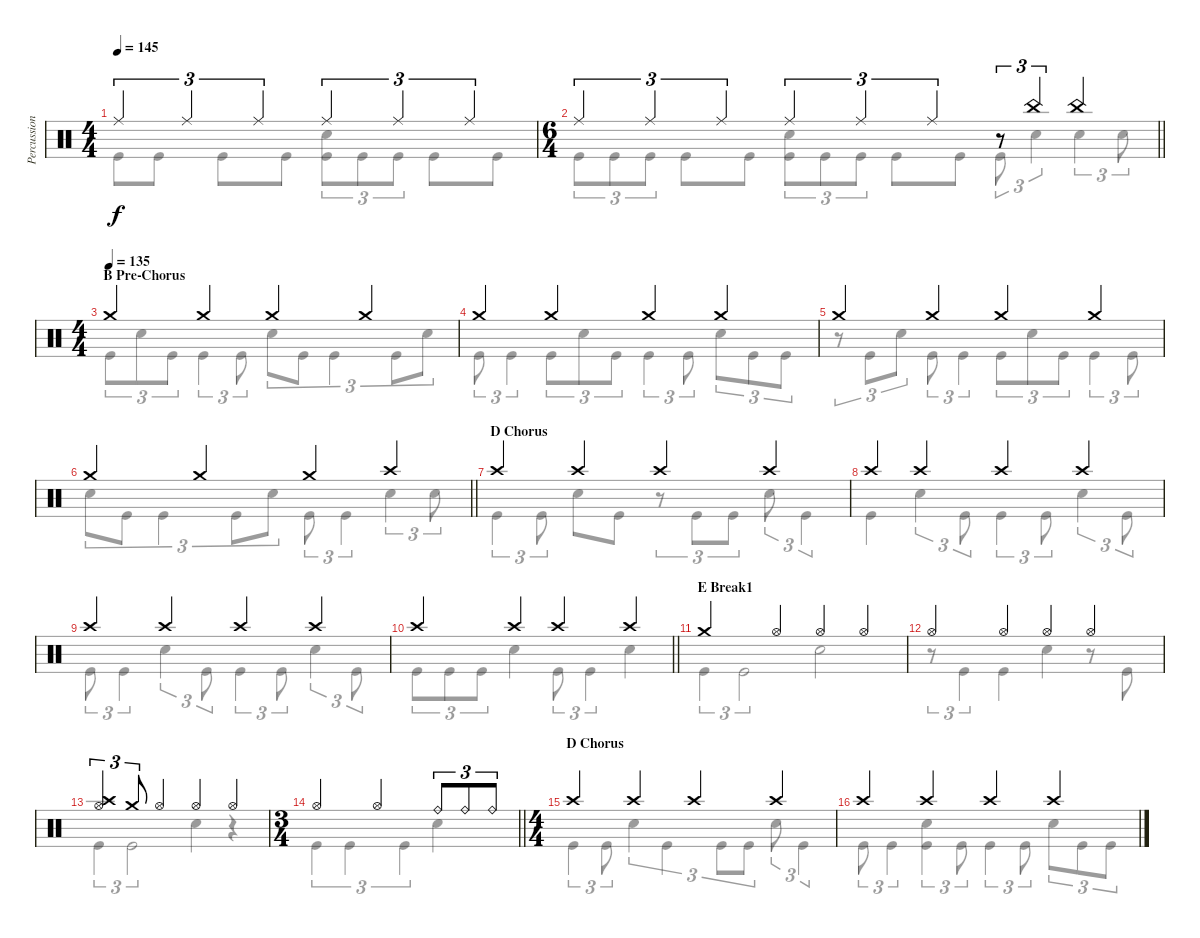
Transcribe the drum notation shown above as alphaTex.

\track ("Percussions" "Percussion") {instrument percussion}
\staff {score}
\articulation defaults
\voice
\ts (4 4)
\tempo 145
\clef neutral
\ks c "Ride (middle)".4{tu (3 2) dy f} "Ride (middle)".4{tu (3 2)} "Ride (middle)".4{tu (3 2)} "Ride (middle)".4{tu (3 2)} "Ride (middle)".4{tu (3 2)} "Ride (middle)".4{tu (3 2)}
|
\ts (6 4)
\barLineRight lightlight "Ride (middle)".4{tu (3 2)} "Ride (middle)".4{tu (3 2)} "Ride (middle)".4{tu (3 2)} "Ride (middle)".4{tu (3 2)} "Ride (middle)".4{tu (3 2)} "Ride (middle)".4{tu (3 2)}
r.8{tu (3 2)} "China (hit)".4{tu (3 2)} "China (hit)".4 |
\ts (4 4)
\section ("" "B Pre-Chorus")
\tempo (135)
"Crash medium (hit)".4 "Crash medium (hit)".4 "Crash medium (hit)".4 "Crash medium (hit)".4 |
"Crash medium (hit)".4 "Crash medium (hit)".4 "Crash medium (hit)".4 "Crash medium (hit)".4 |
"Crash medium (hit)".4 "Crash medium (hit)".4 "Crash medium (hit)".4 "Crash medium (hit)".4 |
\barLineRight lightlight "Crash medium (hit)".4 "Crash medium (hit)".4 "Crash medium (hit)".4 "Crash high (hit)".4
|
\section ("" "D Chorus")
"Crash high (hit)".4 "Crash high (hit)".4 "Crash high (hit)".4 "Crash high (hit)".4 |
"Crash high (hit)".4 "Crash high (hit)".4 "Crash high (hit)".4 "Crash high (hit)".4 |
"Crash high (hit)".4 "Crash high (hit)".4 "Crash high (hit)".4 "Crash high (hit)".4 |
\barLineRight lightlight "Crash high (hit)".4 "Crash high (hit)".4 "Crash high (hit)".4 "Crash high (hit)".4
|
\section ("" "E Break1")
"Crash medium (hit)".4 "Hi-Hat (open)".4 "Hi-Hat (open)".4 "Hi-Hat (open)".4 |
"Hi-Hat (open)".4 "Hi-Hat (open)".4 "Hi-Hat (open)".4 "Hi-Hat (open)".4 |
("Crash high (hit)" "Hi-Hat (open)").4{tu (3 2)} "Crash medium (hit)".8{tu (3 2)} "Hi-Hat (open)".4 "Hi-Hat (open)".4 "Hi-Hat (open)".4 |
\ts (3 4)
\barLineRight lightlight "Hi-Hat (open)".4 "Hi-Hat (open)".4 "Ride (bell)".8{tu (3 2)} "Ride (bell)".8{tu (3 2)} "Ride (bell)".8{tu (3 2)}
|
\ts (4 4)
\section ("" "D Chorus")
"Crash high (hit)".4 "Crash high (hit)".4 "Crash high (hit)".4 "Crash high (hit)".4 |
"Crash high (hit)".4 "Crash high (hit)".4 "Crash high (hit)".4 "Crash high (hit)".4
\voice
\clef neutral
\ottava regular
\simile none
\ks c "Kick (hit)".8{dy f} "Kick (hit)".8 "Kick (hit)".8 "Kick (hit)".8
("Snare (hit) 2" "Kick (hit)").8{tu (3 2)} "Kick (hit)".8{tu (3 2)} "Kick (hit)".8{tu (3 2)} "Kick (hit)".8 "Kick (hit)".8 |
\barLineRight lightlight "Kick (hit)".8{tu (3 2)} "Kick (hit)".8{tu (3 2)} "Kick (hit)".8{tu (3 2) beam split} "Kick (hit)".8 "Kick (hit)".8{beam split}
("Snare (hit) 2" "Kick (hit)").8{tu (3 2)} "Kick (hit)".8{tu (3 2)} "Kick (hit)".8{tu (3 2)} "Kick (hit)".8 "Kick (hit)".8 "Kick (hit)".8{tu (3 2)} "Snare (hit) 2".4{tu (3 2)} "Snare (hit) 2".4{tu (3 2)} "Snare (hit) 2".8{tu (3 2)} |
"Kick (hit)".8{tu (3 2)} "Snare (hit) 2".8{tu (3 2)} "Kick (hit)".8{tu (3 2)} "Kick (hit)".4{tu (3 2)} "Kick (hit)".8{tu (3 2)} "Snare (hit) 2".8{tu (3 2)} "Kick (hit)".8{tu (3 2)} "Kick (hit)".4{tu (3 2)} "Kick (hit)".8{tu (3 2)} "Snare (hit) 2".8{tu (3 2)} |
"Kick (hit)".8{tu (3 2)} "Kick (hit)".4{tu (3 2)} "Kick (hit)".8{tu (3 2)} "Snare (hit) 2".8{tu (3 2)} "Kick (hit)".8{tu (3 2)} "Kick (hit)".4{tu (3 2)} "Kick (hit)".8{tu (3 2)} "Snare (hit) 2".8{tu (3 2)} "Kick (hit)".8{tu (3 2)} "Kick (hit)".8{tu (3 2)} |
r.8{tu (3 2)} "Kick (hit)".8{tu (3 2)} "Snare (hit) 2".8{tu (3 2)} "Kick (hit)".8{tu (3 2)} "Kick (hit)".4{tu (3 2)} "Kick (hit)".8{tu (3 2)} "Snare (hit) 2".8{tu (3 2)} "Kick (hit)".8{tu (3 2)} "Kick (hit)".4{tu (3 2)} "Kick (hit)".8{tu (3 2)} |
\barLineRight lightlight "Snare (hit) 2".8{tu (3 2)} "Kick (hit)".8{tu (3 2)} "Kick (hit)".4{tu (3 2)} "Kick (hit)".8{tu (3 2)} "Snare (hit) 2".8{tu (3 2)} "Kick (hit)".8{tu (3 2)} "Kick (hit)".4{tu (3 2)} "Snare (hit) 2".4{tu (3 2)} "Snare (hit) 2".8{tu (3 2)}
|
"Kick (hit)".4{tu (3 2)} "Kick (hit)".8{tu (3 2)} "Snare (hit) 2".8 "Kick (hit)".8 r.8{tu (3 2)} "Kick (hit)".8{tu (3 2)} "Kick (hit)".8{tu (3 2)} "Snare (hit) 2".8{tu (3 2)} "Kick (hit)".4{tu (3 2)} |
"Kick (hit)".4 "Snare (hit) 2".4{tu (3 2)} "Kick (hit)".8{tu (3 2)} "Kick (hit)".4{tu (3 2)} "Kick (hit)".8{tu (3 2)} "Snare (hit) 2".4{tu (3 2)} "Kick (hit)".8{tu (3 2)} |
"Kick (hit)".8{tu (3 2)} "Kick (hit)".4{tu (3 2)} "Snare (hit) 2".4{tu (3 2)} "Kick (hit)".8{tu (3 2)} "Kick (hit)".4{tu (3 2)} "Kick (hit)".8{tu (3 2)} "Snare (hit) 2".4{tu (3 2)} "Kick (hit)".8{tu (3 2)} |
\barLineRight lightlight "Kick (hit)".8{tu (3 2)} "Kick (hit)".8{tu (3 2)} "Kick (hit)".8{tu (3 2)} "Snare (hit) 2".4 "Kick (hit)".8{tu (3 2)} "Kick (hit)".4{tu (3 2)} "Snare (hit) 2".4
|
"Kick (hit)".4{tu (3 2)} "Kick (hit)".2{tu (3 2)} "Snare (hit) 2".2 |
r.8{tu (3 2)} "Kick (hit)".4{tu (3 2)} "Kick (hit)".4 "Snare (hit) 2".4 r.8 "Kick (hit)".8 |
"Kick (hit)".4{tu (3 2)} "Kick (hit)".2{tu (3 2)} "Snare (hit) 2".4 r.4 |
\barLineRight lightlight "Kick (hit)".4{tu (3 2)} "Kick (hit)".4{tu (3 2)} "Kick (hit)".4{tu (3 2)} "Snare (hit) 2".4
|
"Kick (hit)".4{tu (3 2)} "Kick (hit)".8{tu (3 2)} "Snare (hit) 2".4{tu (3 2)} "Kick (hit)".4{tu (3 2)} "Kick (hit)".8{tu (3 2)} "Kick (hit)".8{tu (3 2)} "Snare (hit) 2".8{tu (3 2)} "Kick (hit)".4{tu (3 2)} |
"Kick (hit)".8{tu (3 2)} "Kick (hit)".4{tu (3 2)} ("Snare (hit) 2" "Kick (hit)").4{tu (3 2)} "Kick (hit)".8{tu (3 2)} "Kick (hit)".4{tu (3 2)} "Kick (hit)".8{tu (3 2)} "Snare (hit) 2".8{tu (3 2)} "Kick (hit)".8{tu (3 2)} "Kick (hit)".8{tu (3 2)}
